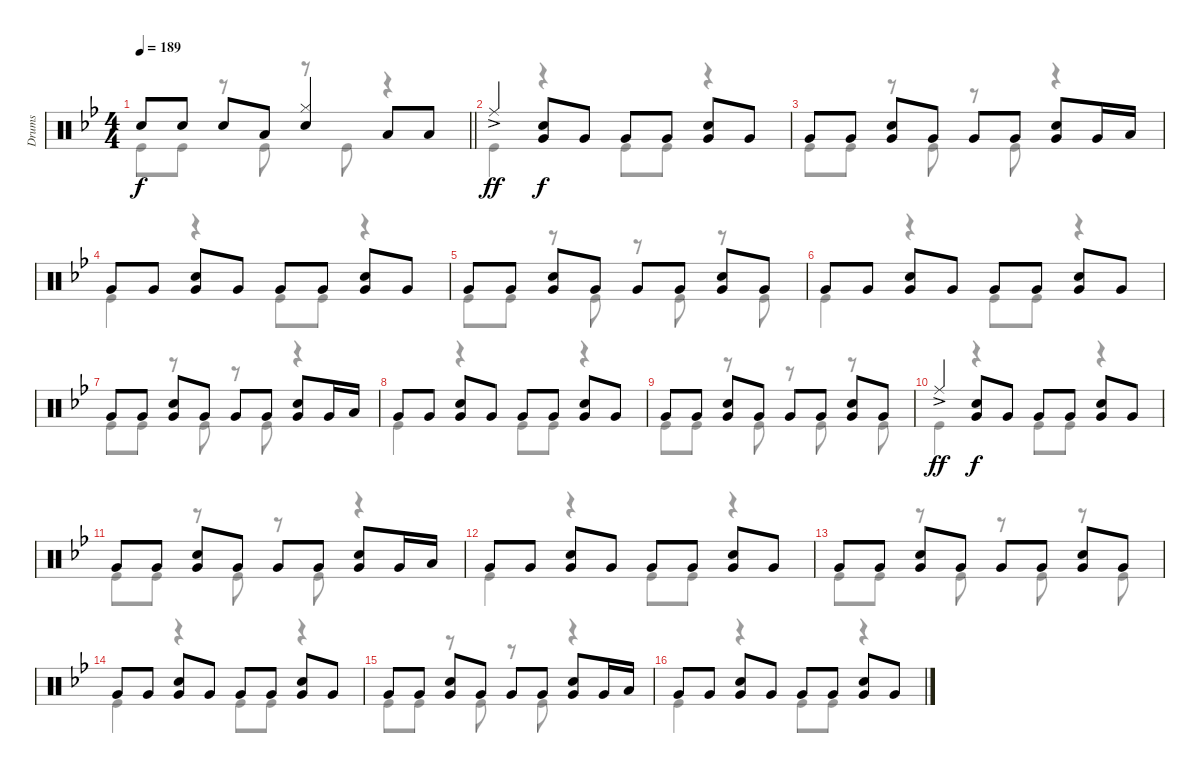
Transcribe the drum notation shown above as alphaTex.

\track ("Drums" "Drums") {instrument percussion}
\staff {score}
\articulation defaults
\voice
\ts (4 4)
\tempo 189
\clef neutral
\barLineRight lightlight
\ks bb "Snare (hit) 2".8{dy f} "Snare (hit) 2".8 "Snare (hit) 2".8 "Low Tom (hit)".8
("Hi-Hat (closed)" "Snare (hit) 2").4 "Low Tom (hit)".8 "Low Tom (hit)".8 |
"Ride (middle)"{ac}.4{dy ff} ("Snare (hit) 2" "Very Low Tom (hit)").8{dy f} "Very Low Tom (hit)".8 "Very Low Tom (hit)".8 "Very Low Tom (hit)".8 ("Snare (hit) 2" "Very Low Tom (hit)").8 "Very Low Tom (hit)".8 |
"Very Low Tom (hit)".8 "Very Low Tom (hit)".8 ("Snare (hit) 2" "Very Low Tom (hit)").8 "Very Low Tom (hit)".8 "Very Low Tom (hit)".8 "Very Low Tom (hit)".8 ("Snare (hit) 2" "Very Low Tom (hit)").8 "Very Low Tom (hit)".16 "Low Tom (hit)".16 |
"Very Low Tom (hit)".8 "Very Low Tom (hit)".8 ("Snare (hit) 2" "Very Low Tom (hit)").8 "Very Low Tom (hit)".8 "Very Low Tom (hit)".8 "Very Low Tom (hit)".8 ("Snare (hit) 2" "Very Low Tom (hit)").8 "Very Low Tom (hit)".8 |
"Very Low Tom (hit)".8 "Very Low Tom (hit)".8 ("Snare (hit) 2" "Very Low Tom (hit)").8 "Very Low Tom (hit)".8 "Very Low Tom (hit)".8 "Very Low Tom (hit)".8 ("Snare (hit) 2" "Very Low Tom (hit)").8 "Very Low Tom (hit)".8 |
"Very Low Tom (hit)".8 "Very Low Tom (hit)".8 ("Snare (hit) 2" "Very Low Tom (hit)").8 "Very Low Tom (hit)".8 "Very Low Tom (hit)".8 "Very Low Tom (hit)".8 ("Snare (hit) 2" "Very Low Tom (hit)").8 "Very Low Tom (hit)".8 |
"Very Low Tom (hit)".8 "Very Low Tom (hit)".8 ("Snare (hit) 2" "Very Low Tom (hit)").8 "Very Low Tom (hit)".8 "Very Low Tom (hit)".8 "Very Low Tom (hit)".8 ("Snare (hit) 2" "Very Low Tom (hit)").8 "Very Low Tom (hit)".16 "Low Tom (hit)".16 |
"Very Low Tom (hit)".8 "Very Low Tom (hit)".8 ("Snare (hit) 2" "Very Low Tom (hit)").8 "Very Low Tom (hit)".8 "Very Low Tom (hit)".8 "Very Low Tom (hit)".8 ("Snare (hit) 2" "Very Low Tom (hit)").8 "Very Low Tom (hit)".8 |
"Very Low Tom (hit)".8 "Very Low Tom (hit)".8 ("Snare (hit) 2" "Very Low Tom (hit)").8 "Very Low Tom (hit)".8 "Very Low Tom (hit)".8 "Very Low Tom (hit)".8 ("Snare (hit) 2" "Very Low Tom (hit)").8 "Very Low Tom (hit)".8 |
"Ride (middle)"{ac}.4{dy ff} ("Snare (hit) 2" "Very Low Tom (hit)").8{dy f} "Very Low Tom (hit)".8 "Very Low Tom (hit)".8 "Very Low Tom (hit)".8 ("Snare (hit) 2" "Very Low Tom (hit)").8 "Very Low Tom (hit)".8 |
"Very Low Tom (hit)".8 "Very Low Tom (hit)".8 ("Snare (hit) 2" "Very Low Tom (hit)").8 "Very Low Tom (hit)".8 "Very Low Tom (hit)".8 "Very Low Tom (hit)".8 ("Snare (hit) 2" "Very Low Tom (hit)").8 "Very Low Tom (hit)".16 "Low Tom (hit)".16 |
"Very Low Tom (hit)".8 "Very Low Tom (hit)".8 ("Snare (hit) 2" "Very Low Tom (hit)").8 "Very Low Tom (hit)".8 "Very Low Tom (hit)".8 "Very Low Tom (hit)".8 ("Snare (hit) 2" "Very Low Tom (hit)").8 "Very Low Tom (hit)".8 |
"Very Low Tom (hit)".8 "Very Low Tom (hit)".8 ("Snare (hit) 2" "Very Low Tom (hit)").8 "Very Low Tom (hit)".8 "Very Low Tom (hit)".8 "Very Low Tom (hit)".8 ("Snare (hit) 2" "Very Low Tom (hit)").8 "Very Low Tom (hit)".8 |
"Very Low Tom (hit)".8 "Very Low Tom (hit)".8 ("Snare (hit) 2" "Very Low Tom (hit)").8 "Very Low Tom (hit)".8 "Very Low Tom (hit)".8 "Very Low Tom (hit)".8 ("Snare (hit) 2" "Very Low Tom (hit)").8 "Very Low Tom (hit)".8 |
"Very Low Tom (hit)".8 "Very Low Tom (hit)".8 ("Snare (hit) 2" "Very Low Tom (hit)").8 "Very Low Tom (hit)".8 "Very Low Tom (hit)".8 "Very Low Tom (hit)".8 ("Snare (hit) 2" "Very Low Tom (hit)").8 "Very Low Tom (hit)".16 "Low Tom (hit)".16 |
"Very Low Tom (hit)".8 "Very Low Tom (hit)".8 ("Snare (hit) 2" "Very Low Tom (hit)").8 "Very Low Tom (hit)".8 "Very Low Tom (hit)".8 "Very Low Tom (hit)".8 ("Snare (hit) 2" "Very Low Tom (hit)").8 "Very Low Tom (hit)".8
\voice
\clef neutral
\ottava regular
\simile none
\barLineRight lightlight
\ks bb "Kick (hit)".8{dy f} "Kick (hit)".8
r.8 "Kick (hit)".8 r.8 "Kick (hit)".8 r.4 |
"Kick (hit)".4 r.4 "Kick (hit)".8 "Kick (hit)".8 r.4 |
"Kick (hit)".8 "Kick (hit)".8 r.8 "Kick (hit)".8 r.8 "Kick (hit)".8 r.4 |
"Kick (hit)".4 r.4 "Kick (hit)".8 "Kick (hit)".8 r.4 |
"Kick (hit)".8 "Kick (hit)".8 r.8 "Kick (hit)".8 r.8 "Kick (hit)".8 r.8 "Kick (hit)".8 |
"Kick (hit)".4 r.4 "Kick (hit)".8 "Kick (hit)".8 r.4 |
"Kick (hit)".8 "Kick (hit)".8 r.8 "Kick (hit)".8 r.8 "Kick (hit)".8 r.4 |
"Kick (hit)".4 r.4 "Kick (hit)".8 "Kick (hit)".8 r.4 |
"Kick (hit)".8 "Kick (hit)".8 r.8 "Kick (hit)".8 r.8 "Kick (hit)".8 r.8 "Kick (hit)".8 |
"Kick (hit)".4 r.4 "Kick (hit)".8 "Kick (hit)".8 r.4 |
"Kick (hit)".8 "Kick (hit)".8 r.8 "Kick (hit)".8 r.8 "Kick (hit)".8 r.4 |
"Kick (hit)".4 r.4 "Kick (hit)".8 "Kick (hit)".8 r.4 |
"Kick (hit)".8 "Kick (hit)".8 r.8 "Kick (hit)".8 r.8 "Kick (hit)".8 r.8 "Kick (hit)".8 |
"Kick (hit)".4 r.4 "Kick (hit)".8 "Kick (hit)".8 r.4 |
"Kick (hit)".8 "Kick (hit)".8 r.8 "Kick (hit)".8 r.8 "Kick (hit)".8 r.4 |
"Kick (hit)".4 r.4 "Kick (hit)".8 "Kick (hit)".8 r.4
